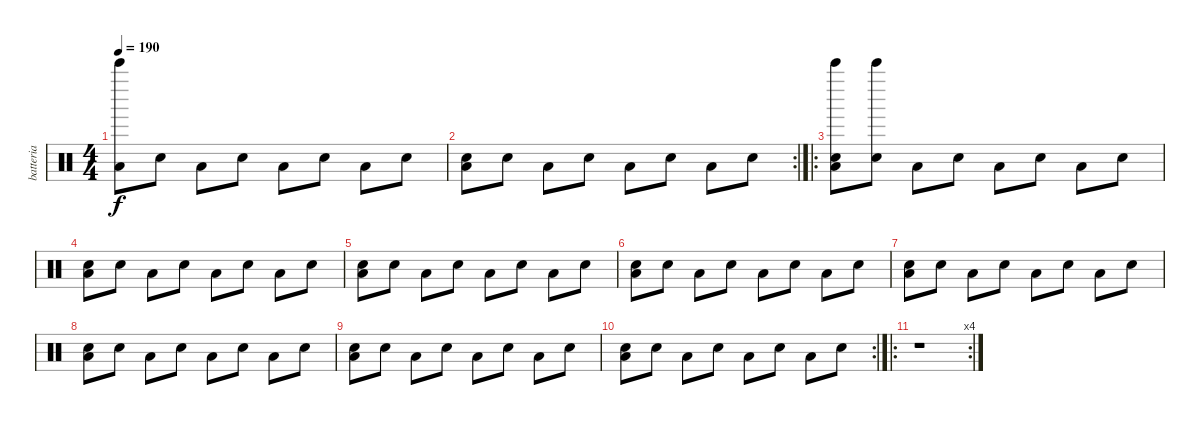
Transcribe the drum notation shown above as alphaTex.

\track ("batteria" "batteria") {instrument percussion}
\staff {score}
\articulation defaults
\ts (4 4)
\tempo 190
\clef neutral
\ks c
("Bell Tree (hit)" "Low Floor Tom (hit)").8{dy f} "Snare (hit) 2".8 "Low Floor Tom (hit)".8 "Snare (hit) 2".8 "Low Floor Tom (hit)".8 "Snare (hit) 2".8 "Low Floor Tom (hit)".8 "Snare (hit) 2".8 |
\rc 2
("Hand Clap (hit)" "Low Floor Tom (hit)").8 "Snare (hit) 2".8 "Low Floor Tom (hit)".8 "Snare (hit) 2".8 "Low Floor Tom (hit)".8 "Snare (hit) 2".8 "Low Floor Tom (hit)".8 "Snare (hit) 2".8 |
\ro
("Bell Tree (hit)" "Hand Clap (hit)" "Low Floor Tom (hit)").8 ("Bell Tree (hit)" "Snare (hit) 2").8 "Low Floor Tom (hit)".8 "Snare (hit) 2".8 "Low Floor Tom (hit)".8 "Snare (hit) 2".8 "Low Floor Tom (hit)".8 "Snare (hit) 2".8 |
("Hand Clap (hit)" "Low Floor Tom (hit)").8 "Snare (hit) 2".8 "Low Floor Tom (hit)".8 "Snare (hit) 2".8 "Low Floor Tom (hit)".8 "Snare (hit) 2".8 "Low Floor Tom (hit)".8 "Snare (hit) 2".8 |
("Hand Clap (hit)" "Low Floor Tom (hit)").8 "Snare (hit) 2".8 "Low Floor Tom (hit)".8 "Snare (hit) 2".8 "Low Floor Tom (hit)".8 "Snare (hit) 2".8 "Low Floor Tom (hit)".8 "Snare (hit) 2".8 |
("Hand Clap (hit)" "Low Floor Tom (hit)").8 "Snare (hit) 2".8 "Low Floor Tom (hit)".8 "Snare (hit) 2".8 "Low Floor Tom (hit)".8 "Snare (hit) 2".8 "Low Floor Tom (hit)".8 "Snare (hit) 2".8 |
("Hand Clap (hit)" "Low Floor Tom (hit)").8 "Snare (hit) 2".8 "Low Floor Tom (hit)".8 "Snare (hit) 2".8 "Low Floor Tom (hit)".8 "Snare (hit) 2".8 "Low Floor Tom (hit)".8 "Snare (hit) 2".8 |
("Hand Clap (hit)" "Low Floor Tom (hit)").8 "Snare (hit) 2".8 "Low Floor Tom (hit)".8 "Snare (hit) 2".8 "Low Floor Tom (hit)".8 "Snare (hit) 2".8 "Low Floor Tom (hit)".8 "Snare (hit) 2".8 |
("Hand Clap (hit)" "Low Floor Tom (hit)").8 "Snare (hit) 2".8 "Low Floor Tom (hit)".8 "Snare (hit) 2".8 "Low Floor Tom (hit)".8 "Snare (hit) 2".8 "Low Floor Tom (hit)".8 "Snare (hit) 2".8 |
\rc 2
("Hand Clap (hit)" "Low Floor Tom (hit)").8 "Snare (hit) 2".8 "Low Floor Tom (hit)".8 "Snare (hit) 2".8 "Low Floor Tom (hit)".8 "Snare (hit) 2".8 "Low Floor Tom (hit)".8 "Snare (hit) 2".8 |
\ro
\rc 4
r.1
